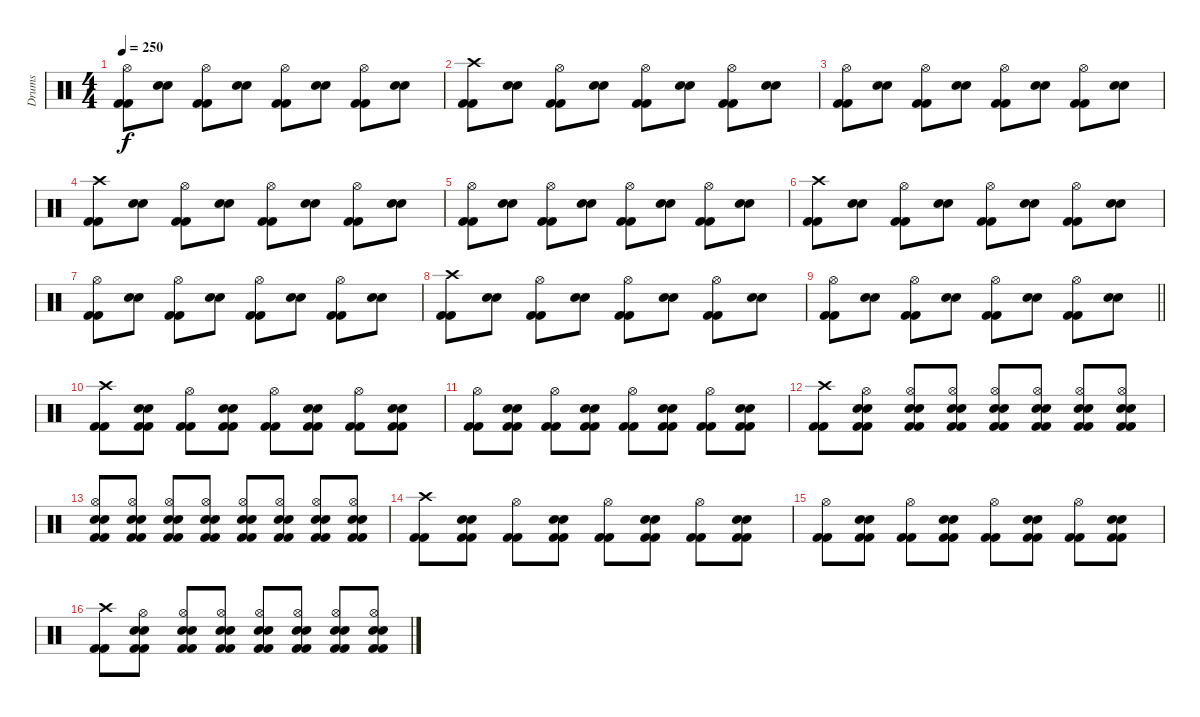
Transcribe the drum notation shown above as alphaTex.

\track ("Drums" "Drums") {instrument percussion}
\staff {score}
\articulation defaults
\ts (4 4)
\tempo 250
\clef neutral
\ks c
("Kick (hit) 2" "Kick (hit) 2" "Hi-Hat (open)").8{dy f} ("Electric Snare (hit)" "Electric Snare (hit)").8 ("Kick (hit) 2" "Kick (hit) 2" "Hi-Hat (open)").8 ("Electric Snare (hit)" "Electric Snare (hit)").8 ("Kick (hit) 2" "Kick (hit) 2" "Hi-Hat (open)").8 ("Electric Snare (hit)" "Electric Snare (hit)").8 ("Kick (hit) 2" "Kick (hit) 2" "Hi-Hat (open)").8 ("Electric Snare (hit)" "Electric Snare (hit)").8 |
("Kick (hit) 2" "Kick (hit) 2" "Crash high (hit)").8 ("Electric Snare (hit)" "Electric Snare (hit)").8 ("Kick (hit) 2" "Kick (hit) 2" "Hi-Hat (open)").8 ("Electric Snare (hit)" "Electric Snare (hit)").8 ("Kick (hit) 2" "Kick (hit) 2" "Hi-Hat (open)").8 ("Electric Snare (hit)" "Electric Snare (hit)").8 ("Kick (hit) 2" "Kick (hit) 2" "Hi-Hat (open)").8 ("Electric Snare (hit)" "Electric Snare (hit)").8 |
("Kick (hit) 2" "Kick (hit) 2" "Hi-Hat (open)").8 ("Electric Snare (hit)" "Electric Snare (hit)").8 ("Kick (hit) 2" "Kick (hit) 2" "Hi-Hat (open)").8 ("Electric Snare (hit)" "Electric Snare (hit)").8 ("Kick (hit) 2" "Kick (hit) 2" "Hi-Hat (open)").8 ("Electric Snare (hit)" "Electric Snare (hit)").8 ("Kick (hit) 2" "Kick (hit) 2" "Hi-Hat (open)").8 ("Electric Snare (hit)" "Electric Snare (hit)").8 |
("Kick (hit) 2" "Kick (hit) 2" "Crash high (hit)").8 ("Electric Snare (hit)" "Electric Snare (hit)").8 ("Kick (hit) 2" "Kick (hit) 2" "Hi-Hat (open)").8 ("Electric Snare (hit)" "Electric Snare (hit)").8 ("Kick (hit) 2" "Kick (hit) 2" "Hi-Hat (open)").8 ("Electric Snare (hit)" "Electric Snare (hit)").8 ("Kick (hit) 2" "Kick (hit) 2" "Hi-Hat (open)").8 ("Electric Snare (hit)" "Electric Snare (hit)").8 |
("Kick (hit) 2" "Kick (hit) 2" "Hi-Hat (open)").8 ("Electric Snare (hit)" "Electric Snare (hit)").8 ("Kick (hit) 2" "Kick (hit) 2" "Hi-Hat (open)").8 ("Electric Snare (hit)" "Electric Snare (hit)").8 ("Kick (hit) 2" "Kick (hit) 2" "Hi-Hat (open)").8 ("Electric Snare (hit)" "Electric Snare (hit)").8 ("Kick (hit) 2" "Kick (hit) 2" "Hi-Hat (open)").8 ("Electric Snare (hit)" "Electric Snare (hit)").8 |
("Kick (hit) 2" "Kick (hit) 2" "Crash high (hit)").8 ("Electric Snare (hit)" "Electric Snare (hit)").8 ("Kick (hit) 2" "Kick (hit) 2" "Hi-Hat (open)").8 ("Electric Snare (hit)" "Electric Snare (hit)").8 ("Kick (hit) 2" "Kick (hit) 2" "Hi-Hat (open)").8 ("Electric Snare (hit)" "Electric Snare (hit)").8 ("Kick (hit) 2" "Kick (hit) 2" "Hi-Hat (open)").8 ("Electric Snare (hit)" "Electric Snare (hit)").8 |
("Kick (hit) 2" "Kick (hit) 2" "Hi-Hat (open)").8 ("Electric Snare (hit)" "Electric Snare (hit)").8 ("Kick (hit) 2" "Kick (hit) 2" "Hi-Hat (open)").8 ("Electric Snare (hit)" "Electric Snare (hit)").8 ("Kick (hit) 2" "Kick (hit) 2" "Hi-Hat (open)").8 ("Electric Snare (hit)" "Electric Snare (hit)").8 ("Kick (hit) 2" "Kick (hit) 2" "Hi-Hat (open)").8 ("Electric Snare (hit)" "Electric Snare (hit)").8 |
("Kick (hit) 2" "Kick (hit) 2" "Crash high (hit)").8 ("Electric Snare (hit)" "Electric Snare (hit)").8 ("Kick (hit) 2" "Kick (hit) 2" "Hi-Hat (open)").8 ("Electric Snare (hit)" "Electric Snare (hit)").8 ("Kick (hit) 2" "Kick (hit) 2" "Hi-Hat (open)").8 ("Electric Snare (hit)" "Electric Snare (hit)").8 ("Kick (hit) 2" "Kick (hit) 2" "Hi-Hat (open)").8 ("Electric Snare (hit)" "Electric Snare (hit)").8 |
\barLineRight lightlight
("Kick (hit) 2" "Kick (hit) 2" "Hi-Hat (open)").8 ("Electric Snare (hit)" "Electric Snare (hit)").8 ("Kick (hit) 2" "Kick (hit) 2" "Hi-Hat (open)").8 ("Electric Snare (hit)" "Electric Snare (hit)").8 ("Kick (hit) 2" "Kick (hit) 2" "Hi-Hat (open)").8 ("Electric Snare (hit)" "Electric Snare (hit)").8 ("Kick (hit) 2" "Kick (hit) 2" "Hi-Hat (open)").8 ("Electric Snare (hit)" "Electric Snare (hit)").8 |
("Kick (hit) 2" "Kick (hit) 2" "Crash high (hit)").8 ("Kick (hit) 2" "Kick (hit) 2" "Electric Snare (hit)" "Electric Snare (hit)").8 ("Kick (hit) 2" "Kick (hit) 2" "Hi-Hat (open)").8 ("Kick (hit) 2" "Kick (hit) 2" "Electric Snare (hit)" "Electric Snare (hit)").8 ("Kick (hit) 2" "Kick (hit) 2" "Hi-Hat (open)").8 ("Kick (hit) 2" "Kick (hit) 2" "Electric Snare (hit)" "Electric Snare (hit)").8 ("Kick (hit) 2" "Kick (hit) 2" "Hi-Hat (open)").8 ("Kick (hit) 2" "Kick (hit) 2" "Electric Snare (hit)" "Electric Snare (hit)").8 |
("Kick (hit) 2" "Kick (hit) 2" "Hi-Hat (open)").8 ("Kick (hit) 2" "Kick (hit) 2" "Electric Snare (hit)" "Electric Snare (hit)").8 ("Kick (hit) 2" "Kick (hit) 2" "Hi-Hat (open)").8 ("Kick (hit) 2" "Kick (hit) 2" "Electric Snare (hit)" "Electric Snare (hit)").8 ("Kick (hit) 2" "Kick (hit) 2" "Hi-Hat (open)").8 ("Kick (hit) 2" "Kick (hit) 2" "Electric Snare (hit)" "Electric Snare (hit)").8 ("Kick (hit) 2" "Kick (hit) 2" "Hi-Hat (open)").8 ("Kick (hit) 2" "Kick (hit) 2" "Electric Snare (hit)" "Electric Snare (hit)").8 |
("Kick (hit) 2" "Kick (hit) 2" "Crash high (hit)").8 ("Kick (hit) 2" "Kick (hit) 2" "Electric Snare (hit)" "Electric Snare (hit)" "Hi-Hat (open)").8 ("Kick (hit) 2" "Kick (hit) 2" "Electric Snare (hit)" "Electric Snare (hit)" "Hi-Hat (open)").8 ("Kick (hit) 2" "Kick (hit) 2" "Electric Snare (hit)" "Electric Snare (hit)" "Hi-Hat (open)").8 ("Kick (hit) 2" "Kick (hit) 2" "Electric Snare (hit)" "Electric Snare (hit)" "Hi-Hat (open)").8 ("Kick (hit) 2" "Kick (hit) 2" "Electric Snare (hit)" "Electric Snare (hit)" "Hi-Hat (open)").8 ("Kick (hit) 2" "Kick (hit) 2" "Electric Snare (hit)" "Electric Snare (hit)" "Hi-Hat (open)").8 ("Kick (hit) 2" "Kick (hit) 2" "Electric Snare (hit)" "Electric Snare (hit)" "Hi-Hat (open)").8 |
("Kick (hit) 2" "Kick (hit) 2" "Electric Snare (hit)" "Electric Snare (hit)" "Hi-Hat (open)").8 ("Kick (hit) 2" "Kick (hit) 2" "Electric Snare (hit)" "Electric Snare (hit)" "Hi-Hat (open)").8 ("Kick (hit) 2" "Kick (hit) 2" "Electric Snare (hit)" "Electric Snare (hit)" "Hi-Hat (open)").8 ("Kick (hit) 2" "Kick (hit) 2" "Electric Snare (hit)" "Electric Snare (hit)" "Hi-Hat (open)").8 ("Kick (hit) 2" "Kick (hit) 2" "Electric Snare (hit)" "Electric Snare (hit)" "Hi-Hat (open)").8 ("Kick (hit) 2" "Kick (hit) 2" "Electric Snare (hit)" "Electric Snare (hit)" "Hi-Hat (open)").8 ("Kick (hit) 2" "Kick (hit) 2" "Electric Snare (hit)" "Electric Snare (hit)" "Hi-Hat (open)").8 ("Kick (hit) 2" "Kick (hit) 2" "Electric Snare (hit)" "Electric Snare (hit)" "Hi-Hat (open)").8 |
("Kick (hit) 2" "Kick (hit) 2" "Crash high (hit)").8 ("Kick (hit) 2" "Kick (hit) 2" "Electric Snare (hit)" "Electric Snare (hit)").8 ("Kick (hit) 2" "Kick (hit) 2" "Hi-Hat (open)").8 ("Kick (hit) 2" "Kick (hit) 2" "Electric Snare (hit)" "Electric Snare (hit)").8 ("Kick (hit) 2" "Kick (hit) 2" "Hi-Hat (open)").8 ("Kick (hit) 2" "Kick (hit) 2" "Electric Snare (hit)" "Electric Snare (hit)").8 ("Kick (hit) 2" "Kick (hit) 2" "Hi-Hat (open)").8 ("Kick (hit) 2" "Kick (hit) 2" "Electric Snare (hit)" "Electric Snare (hit)").8 |
("Kick (hit) 2" "Kick (hit) 2" "Hi-Hat (open)").8 ("Kick (hit) 2" "Kick (hit) 2" "Electric Snare (hit)" "Electric Snare (hit)").8 ("Kick (hit) 2" "Kick (hit) 2" "Hi-Hat (open)").8 ("Kick (hit) 2" "Kick (hit) 2" "Electric Snare (hit)" "Electric Snare (hit)").8 ("Kick (hit) 2" "Kick (hit) 2" "Hi-Hat (open)").8 ("Kick (hit) 2" "Kick (hit) 2" "Electric Snare (hit)" "Electric Snare (hit)").8 ("Kick (hit) 2" "Kick (hit) 2" "Hi-Hat (open)").8 ("Kick (hit) 2" "Kick (hit) 2" "Electric Snare (hit)" "Electric Snare (hit)").8 |
("Kick (hit) 2" "Kick (hit) 2" "Crash high (hit)").8 ("Kick (hit) 2" "Kick (hit) 2" "Electric Snare (hit)" "Electric Snare (hit)" "Hi-Hat (open)").8 ("Kick (hit) 2" "Kick (hit) 2" "Electric Snare (hit)" "Electric Snare (hit)" "Hi-Hat (open)").8 ("Kick (hit) 2" "Kick (hit) 2" "Electric Snare (hit)" "Electric Snare (hit)" "Hi-Hat (open)").8 ("Kick (hit) 2" "Kick (hit) 2" "Electric Snare (hit)" "Electric Snare (hit)" "Hi-Hat (open)").8 ("Kick (hit) 2" "Kick (hit) 2" "Electric Snare (hit)" "Electric Snare (hit)" "Hi-Hat (open)").8 ("Kick (hit) 2" "Kick (hit) 2" "Electric Snare (hit)" "Electric Snare (hit)" "Hi-Hat (open)").8 ("Kick (hit) 2" "Kick (hit) 2" "Electric Snare (hit)" "Electric Snare (hit)" "Hi-Hat (open)").8
